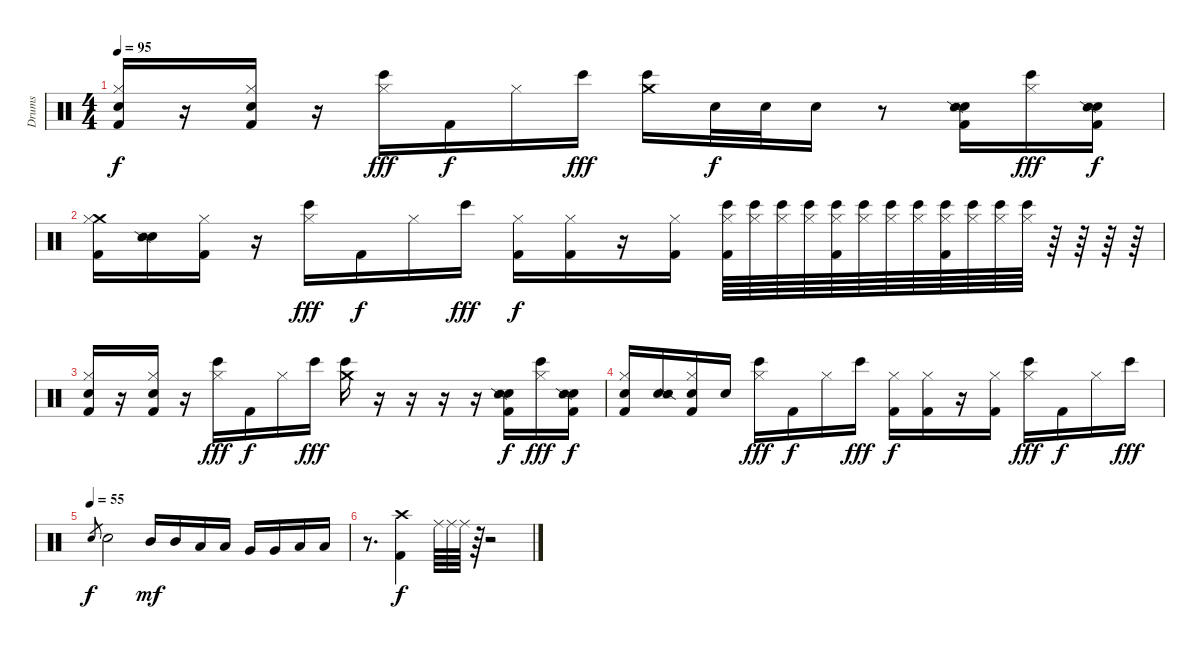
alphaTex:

\track ("Drums" "Drums") {instrument percussion}
\staff {score}
\articulation defaults
\ts (4 4)
\tempo 95
\clef neutral
\ks c
("Metronome (bell)" "Hi-Hat (closed)" "Kick (hit) 2").16{dy f} r.16 ("Metronome (bell)" "Hi-Hat (closed)" "Kick (hit) 2").16 r.16 ("Hi-Hat (closed)" "Bongo High (hit)").16{dy fff} "Kick (hit) 2".16{dy f} "Hi-Hat (closed)".16 "Bongo High (hit)".16{dy fff} ("Crash medium (hit)" "Bongo High (hit)").16 "Metronome (bell)".32{dy f} "Metronome (bell)".32 "Metronome (bell)".16 r.8 ("Metronome (bell)" "Snare (side stick) 2" "Kick (hit) 2").16 ("Hi-Hat (closed)" "Bongo High (hit)").16{dy fff} ("Metronome (bell)" "Snare (side stick) 2" "Kick (hit) 2").16{dy f} |
("Crash medium (hit)" "Hi-Hat (closed)" "Kick (hit) 2").16 ("Metronome (bell)" "Snare (side stick) 2").16 ("Hi-Hat (closed)" "Kick (hit) 2").16 r.16 ("Hi-Hat (closed)" "Bongo High (hit)").16{dy fff} "Kick (hit) 2".16{dy f} "Hi-Hat (closed)".16 "Bongo High (hit)".16{dy fff} ("Hi-Hat (closed)" "Kick (hit) 2").16{dy f} ("Hi-Hat (closed)" "Kick (hit) 2").16 r.16 ("Hi-Hat (closed)" "Kick (hit) 2").16 ("Hi-Hat (closed)" "Kick (hit) 2" "Bongo High (hit)").64 ("Hi-Hat (closed)" "Bongo High (hit)").64 ("Hi-Hat (closed)" "Bongo High (hit)").64 ("Hi-Hat (closed)" "Bongo High (hit)").64 ("Hi-Hat (closed)" "Kick (hit) 2" "Bongo High (hit)").64 ("Hi-Hat (closed)" "Bongo High (hit)").64 ("Hi-Hat (closed)" "Bongo High (hit)").64 ("Hi-Hat (closed)" "Bongo High (hit)").64 ("Hi-Hat (closed)" "Kick (hit) 2" "Bongo High (hit)").64 ("Hi-Hat (closed)" "Bongo High (hit)").64 ("Hi-Hat (closed)" "Bongo High (hit)").64 ("Hi-Hat (closed)" "Bongo High (hit)").64 r.64 r.64 r.64 r.64 |
("Metronome (bell)" "Hi-Hat (closed)" "Kick (hit) 2").16 r.16 ("Metronome (bell)" "Hi-Hat (closed)" "Kick (hit) 2").16 r.16 ("Hi-Hat (closed)" "Bongo High (hit)").16{dy fff} "Kick (hit) 2".16{dy f} "Hi-Hat (closed)".16 "Bongo High (hit)".16{dy fff} ("Crash medium (hit)" "Bongo High (hit)").16 r.16 r.16 r.16 r.16 ("Metronome (bell)" "Snare (side stick) 2" "Kick (hit) 2").16{dy f} ("Hi-Hat (closed)" "Bongo High (hit)").16{dy fff} ("Metronome (bell)" "Snare (side stick) 2" "Kick (hit) 2").16{dy f} |
("Metronome (bell)" "Hi-Hat (closed)" "Kick (hit) 2").16 ("Metronome (bell)" "Snare (side stick) 2").16 ("Metronome (bell)" "Hi-Hat (closed)" "Kick (hit) 2").16 "Metronome (bell)".16 ("Hi-Hat (closed)" "Bongo High (hit)").16{dy fff} "Kick (hit) 2".16{dy f} "Hi-Hat (closed)".16 "Bongo High (hit)".16{dy fff} ("Hi-Hat (closed)" "Kick (hit) 2").16{dy f} ("Hi-Hat (closed)" "Kick (hit) 2").16 r.16 ("Hi-Hat (closed)" "Kick (hit) 2").16 ("Hi-Hat (closed)" "Bongo High (hit)").16{dy fff} "Kick (hit) 2".16{dy f} "Hi-Hat (closed)".16 "Bongo High (hit)".16{dy fff} |
\tempo (55)
"Electric Snare (hit)".8{gr dy f} "Electric Snare (hit)".2 "Mid Tom (hit)".16{dy mf} "Mid Tom (hit)".16 "Low Tom (hit)".16 "Low Tom (hit)".16 "Very Low Tom (hit)".16 "Very Low Tom (hit)".16 "Low Floor Tom (hit)".16 "Low Floor Tom (hit)".16 |
r.8{d} ("Crash high (hit)" "Kick (hit) 2").4{dy f} "Ride (middle)".64 "Ride (middle)".64 "Ride (middle)".64 r.64 r.2
